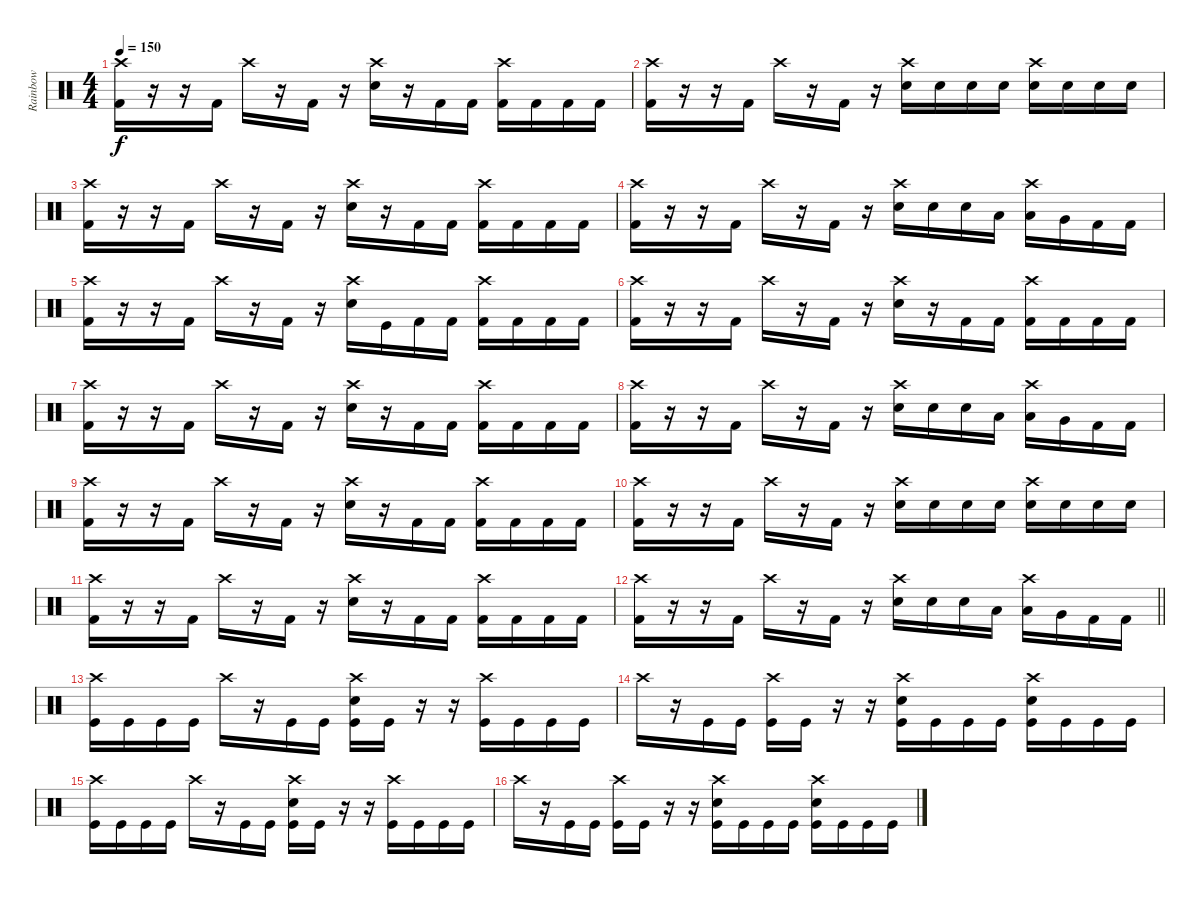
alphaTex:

\track ("Rainbow" "Rainbow") {instrument percussion}
\staff {score}
\articulation defaults
\ts (4 4)
\tempo 150
\clef neutral
\ks c
("Crash high (hit)" "Kick (hit) 2").16{dy f} r.16 r.16 "Kick (hit) 2".16 "Crash high (hit)".16 r.16 "Kick (hit) 2".16 r.16 ("Crash high (hit)" "Electric Snare (hit)").16 r.16 "Kick (hit) 2".16 "Kick (hit) 2".16 ("Crash high (hit)" "Kick (hit) 2").16 "Kick (hit) 2".16 "Kick (hit) 2".16 "Kick (hit) 2".16 |
("Crash high (hit)" "Kick (hit) 2").16 r.16 r.16 "Kick (hit) 2".16 "Crash high (hit)".16 r.16 "Kick (hit) 2".16 r.16 ("Crash high (hit)" "Electric Snare (hit)").16 "Electric Snare (hit)".16 "Electric Snare (hit)".16 "Electric Snare (hit)".16 ("Crash high (hit)" "Electric Snare (hit)").16 "Electric Snare (hit)".16 "Electric Snare (hit)".16 "Electric Snare (hit)".16 |
("Crash high (hit)" "Kick (hit) 2").16 r.16 r.16 "Kick (hit) 2".16 "Crash high (hit)".16 r.16 "Kick (hit) 2".16 r.16 ("Crash high (hit)" "Electric Snare (hit)").16 r.16 "Kick (hit) 2".16 "Kick (hit) 2".16 ("Crash high (hit)" "Kick (hit) 2").16 "Kick (hit) 2".16 "Kick (hit) 2".16 "Kick (hit) 2".16 |
("Crash high (hit)" "Kick (hit) 2").16 r.16 r.16 "Kick (hit) 2".16 "Crash high (hit)".16 r.16 "Kick (hit) 2".16 r.16 ("Crash high (hit)" "Electric Snare (hit)").16 "Electric Snare (hit)".16 "Electric Snare (hit)".16 "Low Tom (hit)".16 ("Crash high (hit)" "Low Tom (hit)").16 "Very Low Tom (hit)".16 "Kick (hit) 2".16 "Kick (hit) 2".16 |
("Crash high (hit)" "Kick (hit) 2").16 r.16 r.16 "Kick (hit) 2".16 "Crash high (hit)".16 r.16 "Kick (hit) 2".16 r.16 ("Crash high (hit)" "Electric Snare (hit)").16 "Kick (hit)".16 "Kick (hit) 2".16 "Kick (hit) 2".16 ("Crash high (hit)" "Kick (hit) 2").16 "Kick (hit) 2".16 "Kick (hit) 2".16 "Kick (hit) 2".16 |
("Crash high (hit)" "Kick (hit) 2").16 r.16 r.16 "Kick (hit) 2".16 "Crash high (hit)".16 r.16 "Kick (hit) 2".16 r.16 ("Crash high (hit)" "Electric Snare (hit)").16 r.16 "Kick (hit) 2".16 "Kick (hit) 2".16 ("Crash high (hit)" "Kick (hit) 2").16 "Kick (hit) 2".16 "Kick (hit) 2".16 "Kick (hit) 2".16 |
("Crash high (hit)" "Kick (hit) 2").16 r.16 r.16 "Kick (hit) 2".16 "Crash high (hit)".16 r.16 "Kick (hit) 2".16 r.16 ("Crash high (hit)" "Electric Snare (hit)").16 r.16 "Kick (hit) 2".16 "Kick (hit) 2".16 ("Crash high (hit)" "Kick (hit) 2").16 "Kick (hit) 2".16 "Kick (hit) 2".16 "Kick (hit) 2".16 |
("Crash high (hit)" "Kick (hit) 2").16 r.16 r.16 "Kick (hit) 2".16 "Crash high (hit)".16 r.16 "Kick (hit) 2".16 r.16 ("Crash high (hit)" "Electric Snare (hit)").16 "Electric Snare (hit)".16 "Electric Snare (hit)".16 "Low Tom (hit)".16 ("Crash high (hit)" "Low Tom (hit)").16 "Very Low Tom (hit)".16 "Kick (hit) 2".16 "Kick (hit) 2".16 |
("Crash high (hit)" "Kick (hit) 2").16 r.16 r.16 "Kick (hit) 2".16 "Crash high (hit)".16 r.16 "Kick (hit) 2".16 r.16 ("Crash high (hit)" "Electric Snare (hit)").16 r.16 "Kick (hit) 2".16 "Kick (hit) 2".16 ("Crash high (hit)" "Kick (hit) 2").16 "Kick (hit) 2".16 "Kick (hit) 2".16 "Kick (hit) 2".16 |
("Crash high (hit)" "Kick (hit) 2").16 r.16 r.16 "Kick (hit) 2".16 "Crash high (hit)".16 r.16 "Kick (hit) 2".16 r.16 ("Crash high (hit)" "Electric Snare (hit)").16 "Electric Snare (hit)".16 "Electric Snare (hit)".16 "Electric Snare (hit)".16 ("Crash high (hit)" "Electric Snare (hit)").16 "Electric Snare (hit)".16 "Electric Snare (hit)".16 "Electric Snare (hit)".16 |
("Crash high (hit)" "Kick (hit) 2").16 r.16 r.16 "Kick (hit) 2".16 "Crash high (hit)".16 r.16 "Kick (hit) 2".16 r.16 ("Crash high (hit)" "Electric Snare (hit)").16 r.16 "Kick (hit) 2".16 "Kick (hit) 2".16 ("Crash high (hit)" "Kick (hit) 2").16 "Kick (hit) 2".16 "Kick (hit) 2".16 "Kick (hit) 2".16 |
\barLineRight lightlight
("Crash high (hit)" "Kick (hit) 2").16 r.16 r.16 "Kick (hit) 2".16 "Crash high (hit)".16 r.16 "Kick (hit) 2".16 r.16 ("Crash high (hit)" "Electric Snare (hit)").16 "Electric Snare (hit)".16 "Electric Snare (hit)".16 "Low Tom (hit)".16 ("Crash high (hit)" "Low Tom (hit)").16 "Very Low Tom (hit)".16 "Kick (hit) 2".16 "Kick (hit) 2".16 |
\section ("" "")
("Crash high (hit)" "Kick (hit)").16 "Kick (hit)".16 "Kick (hit)".16 "Kick (hit)".16 "Crash high (hit)".16 r.16 "Kick (hit)".16 "Kick (hit)".16 ("Crash high (hit)" "Electric Snare (hit)" "Kick (hit)").16 "Kick (hit)".16 r.16 r.16 ("Crash high (hit)" "Kick (hit)").16 "Kick (hit)".16 "Kick (hit)".16 "Kick (hit)".16 |
"Crash high (hit)".16 r.16 "Kick (hit)".16 "Kick (hit)".16 ("Crash high (hit)" "Kick (hit)").16 "Kick (hit)".16 r.16 r.16 ("Crash high (hit)" "Electric Snare (hit)" "Kick (hit)").16 "Kick (hit)".16 "Kick (hit)".16 "Kick (hit)".16 ("Crash high (hit)" "Electric Snare (hit)" "Kick (hit)").16 "Kick (hit)".16 "Kick (hit)".16 "Kick (hit)".16 |
("Crash high (hit)" "Kick (hit)").16 "Kick (hit)".16 "Kick (hit)".16 "Kick (hit)".16 "Crash high (hit)".16 r.16 "Kick (hit)".16 "Kick (hit)".16 ("Crash high (hit)" "Electric Snare (hit)" "Kick (hit)").16 "Kick (hit)".16 r.16 r.16 ("Crash high (hit)" "Kick (hit)").16 "Kick (hit)".16 "Kick (hit)".16 "Kick (hit)".16 |
"Crash high (hit)".16 r.16 "Kick (hit)".16 "Kick (hit)".16 ("Crash high (hit)" "Kick (hit)").16 "Kick (hit)".16 r.16 r.16 ("Crash high (hit)" "Electric Snare (hit)" "Kick (hit)").16 "Kick (hit)".16 "Kick (hit)".16 "Kick (hit)".16 ("Crash high (hit)" "Electric Snare (hit)" "Kick (hit)").16 "Kick (hit)".16 "Kick (hit)".16 "Kick (hit)".16
